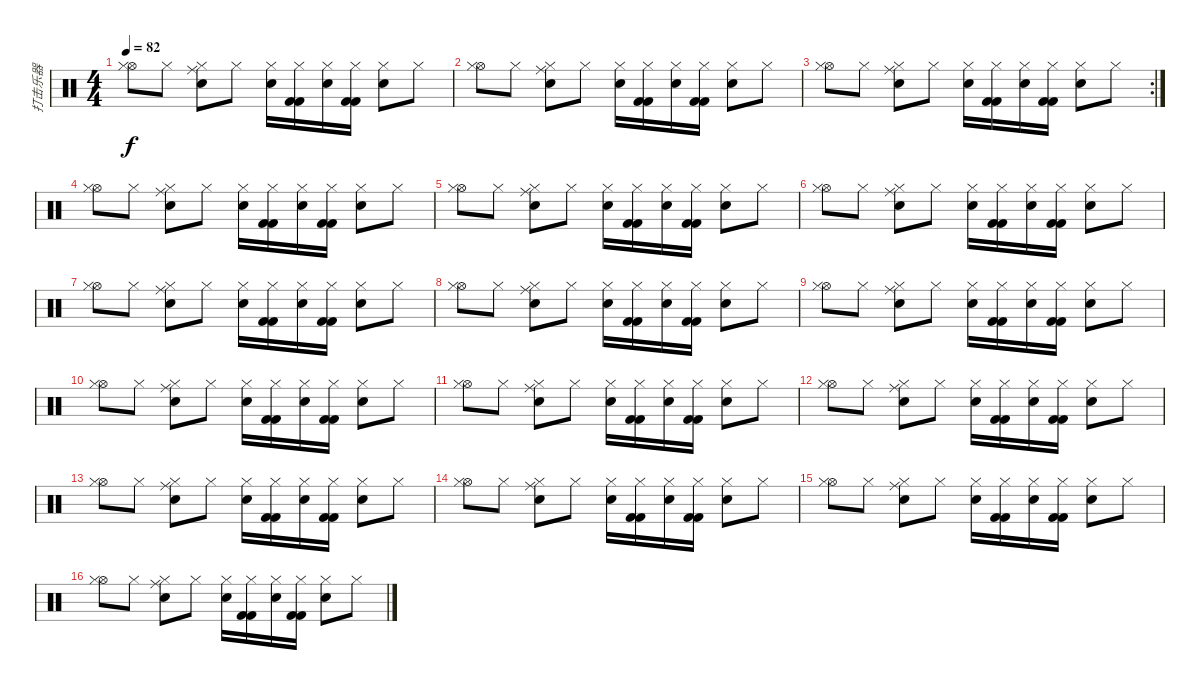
\track ("打击乐器" "打击乐器") {instrument percussion}
\staff {score}
\articulation defaults
\ts (4 4)
\tempo 82
\clef neutral
\ks c
("Hi-Hat (open)" "Hi-Hat (closed)").8{dy f} "Hi-Hat (closed)".8 ("Ride (middle)" "Snare (hit) 2" "Hi-Hat (closed)").8 "Hi-Hat (closed)".8 ("Snare (hit) 2" "Hi-Hat (closed)").16 ("Kick (hit) 2" "Kick (hit) 2" "Hi-Hat (closed)").16 ("Snare (hit) 2" "Hi-Hat (closed)").16 ("Kick (hit) 2" "Kick (hit) 2" "Hi-Hat (closed)").16 ("Snare (hit) 2" "Hi-Hat (closed)").8 "Hi-Hat (closed)".8 |
("Hi-Hat (open)" "Hi-Hat (closed)").8 "Hi-Hat (closed)".8 ("Ride (middle)" "Snare (hit) 2" "Hi-Hat (closed)").8 "Hi-Hat (closed)".8 ("Snare (hit) 2" "Hi-Hat (closed)").16 ("Kick (hit) 2" "Kick (hit) 2" "Hi-Hat (closed)").16 ("Snare (hit) 2" "Hi-Hat (closed)").16 ("Kick (hit) 2" "Kick (hit) 2" "Hi-Hat (closed)").16 ("Snare (hit) 2" "Hi-Hat (closed)").8 "Hi-Hat (closed)".8 |
\rc 2
("Hi-Hat (open)" "Hi-Hat (closed)").8 "Hi-Hat (closed)".8 ("Ride (middle)" "Snare (hit) 2" "Hi-Hat (closed)").8 "Hi-Hat (closed)".8 ("Snare (hit) 2" "Hi-Hat (closed)").16 ("Kick (hit) 2" "Kick (hit) 2" "Hi-Hat (closed)").16 ("Snare (hit) 2" "Hi-Hat (closed)").16 ("Kick (hit) 2" "Kick (hit) 2" "Hi-Hat (closed)").16 ("Snare (hit) 2" "Hi-Hat (closed)").8 "Hi-Hat (closed)".8 |
("Hi-Hat (open)" "Hi-Hat (closed)").8 "Hi-Hat (closed)".8 ("Ride (middle)" "Snare (hit) 2" "Hi-Hat (closed)").8 "Hi-Hat (closed)".8 ("Snare (hit) 2" "Hi-Hat (closed)").16 ("Kick (hit) 2" "Kick (hit) 2" "Hi-Hat (closed)").16 ("Snare (hit) 2" "Hi-Hat (closed)").16 ("Kick (hit) 2" "Kick (hit) 2" "Hi-Hat (closed)").16 ("Snare (hit) 2" "Hi-Hat (closed)").8 "Hi-Hat (closed)".8 |
("Hi-Hat (open)" "Hi-Hat (closed)").8 "Hi-Hat (closed)".8 ("Ride (middle)" "Snare (hit) 2" "Hi-Hat (closed)").8 "Hi-Hat (closed)".8 ("Snare (hit) 2" "Hi-Hat (closed)").16 ("Kick (hit) 2" "Kick (hit) 2" "Hi-Hat (closed)").16 ("Snare (hit) 2" "Hi-Hat (closed)").16 ("Kick (hit) 2" "Kick (hit) 2" "Hi-Hat (closed)").16 ("Snare (hit) 2" "Hi-Hat (closed)").8 "Hi-Hat (closed)".8 |
("Hi-Hat (open)" "Hi-Hat (closed)").8 "Hi-Hat (closed)".8 ("Ride (middle)" "Snare (hit) 2" "Hi-Hat (closed)").8 "Hi-Hat (closed)".8 ("Snare (hit) 2" "Hi-Hat (closed)").16 ("Kick (hit) 2" "Kick (hit) 2" "Hi-Hat (closed)").16 ("Snare (hit) 2" "Hi-Hat (closed)").16 ("Kick (hit) 2" "Kick (hit) 2" "Hi-Hat (closed)").16 ("Snare (hit) 2" "Hi-Hat (closed)").8 "Hi-Hat (closed)".8 |
("Hi-Hat (open)" "Hi-Hat (closed)").8 "Hi-Hat (closed)".8 ("Ride (middle)" "Snare (hit) 2" "Hi-Hat (closed)").8 "Hi-Hat (closed)".8 ("Snare (hit) 2" "Hi-Hat (closed)").16 ("Kick (hit) 2" "Kick (hit) 2" "Hi-Hat (closed)").16 ("Snare (hit) 2" "Hi-Hat (closed)").16 ("Kick (hit) 2" "Kick (hit) 2" "Hi-Hat (closed)").16 ("Snare (hit) 2" "Hi-Hat (closed)").8 "Hi-Hat (closed)".8 |
("Hi-Hat (open)" "Hi-Hat (closed)").8 "Hi-Hat (closed)".8 ("Ride (middle)" "Snare (hit) 2" "Hi-Hat (closed)").8 "Hi-Hat (closed)".8 ("Snare (hit) 2" "Hi-Hat (closed)").16 ("Kick (hit) 2" "Kick (hit) 2" "Hi-Hat (closed)").16 ("Snare (hit) 2" "Hi-Hat (closed)").16 ("Kick (hit) 2" "Kick (hit) 2" "Hi-Hat (closed)").16 ("Snare (hit) 2" "Hi-Hat (closed)").8 "Hi-Hat (closed)".8 |
("Hi-Hat (open)" "Hi-Hat (closed)").8 "Hi-Hat (closed)".8 ("Ride (middle)" "Snare (hit) 2" "Hi-Hat (closed)").8 "Hi-Hat (closed)".8 ("Snare (hit) 2" "Hi-Hat (closed)").16 ("Kick (hit) 2" "Kick (hit) 2" "Hi-Hat (closed)").16 ("Snare (hit) 2" "Hi-Hat (closed)").16 ("Kick (hit) 2" "Kick (hit) 2" "Hi-Hat (closed)").16 ("Snare (hit) 2" "Hi-Hat (closed)").8 "Hi-Hat (closed)".8 |
("Hi-Hat (open)" "Hi-Hat (closed)").8 "Hi-Hat (closed)".8 ("Ride (middle)" "Snare (hit) 2" "Hi-Hat (closed)").8 "Hi-Hat (closed)".8 ("Snare (hit) 2" "Hi-Hat (closed)").16 ("Kick (hit) 2" "Kick (hit) 2" "Hi-Hat (closed)").16 ("Snare (hit) 2" "Hi-Hat (closed)").16 ("Kick (hit) 2" "Kick (hit) 2" "Hi-Hat (closed)").16 ("Snare (hit) 2" "Hi-Hat (closed)").8 "Hi-Hat (closed)".8 |
("Hi-Hat (open)" "Hi-Hat (closed)").8 "Hi-Hat (closed)".8 ("Ride (middle)" "Snare (hit) 2" "Hi-Hat (closed)").8 "Hi-Hat (closed)".8 ("Snare (hit) 2" "Hi-Hat (closed)").16 ("Kick (hit) 2" "Kick (hit) 2" "Hi-Hat (closed)").16 ("Snare (hit) 2" "Hi-Hat (closed)").16 ("Kick (hit) 2" "Kick (hit) 2" "Hi-Hat (closed)").16 ("Snare (hit) 2" "Hi-Hat (closed)").8 "Hi-Hat (closed)".8 |
("Hi-Hat (open)" "Hi-Hat (closed)").8 "Hi-Hat (closed)".8 ("Ride (middle)" "Snare (hit) 2" "Hi-Hat (closed)").8 "Hi-Hat (closed)".8 ("Snare (hit) 2" "Hi-Hat (closed)").16 ("Kick (hit) 2" "Kick (hit) 2" "Hi-Hat (closed)").16 ("Snare (hit) 2" "Hi-Hat (closed)").16 ("Kick (hit) 2" "Kick (hit) 2" "Hi-Hat (closed)").16 ("Snare (hit) 2" "Hi-Hat (closed)").8 "Hi-Hat (closed)".8 |
("Hi-Hat (open)" "Hi-Hat (closed)").8 "Hi-Hat (closed)".8 ("Ride (middle)" "Snare (hit) 2" "Hi-Hat (closed)").8 "Hi-Hat (closed)".8 ("Snare (hit) 2" "Hi-Hat (closed)").16 ("Kick (hit) 2" "Kick (hit) 2" "Hi-Hat (closed)").16 ("Snare (hit) 2" "Hi-Hat (closed)").16 ("Kick (hit) 2" "Kick (hit) 2" "Hi-Hat (closed)").16 ("Snare (hit) 2" "Hi-Hat (closed)").8 "Hi-Hat (closed)".8 |
("Hi-Hat (open)" "Hi-Hat (closed)").8 "Hi-Hat (closed)".8 ("Ride (middle)" "Snare (hit) 2" "Hi-Hat (closed)").8 "Hi-Hat (closed)".8 ("Snare (hit) 2" "Hi-Hat (closed)").16 ("Kick (hit) 2" "Kick (hit) 2" "Hi-Hat (closed)").16 ("Snare (hit) 2" "Hi-Hat (closed)").16 ("Kick (hit) 2" "Kick (hit) 2" "Hi-Hat (closed)").16 ("Snare (hit) 2" "Hi-Hat (closed)").8 "Hi-Hat (closed)".8 |
("Hi-Hat (open)" "Hi-Hat (closed)").8 "Hi-Hat (closed)".8 ("Ride (middle)" "Snare (hit) 2" "Hi-Hat (closed)").8 "Hi-Hat (closed)".8 ("Snare (hit) 2" "Hi-Hat (closed)").16 ("Kick (hit) 2" "Kick (hit) 2" "Hi-Hat (closed)").16 ("Snare (hit) 2" "Hi-Hat (closed)").16 ("Kick (hit) 2" "Kick (hit) 2" "Hi-Hat (closed)").16 ("Snare (hit) 2" "Hi-Hat (closed)").8 "Hi-Hat (closed)".8 |
("Hi-Hat (open)" "Hi-Hat (closed)").8 "Hi-Hat (closed)".8 ("Ride (middle)" "Snare (hit) 2" "Hi-Hat (closed)").8 "Hi-Hat (closed)".8 ("Snare (hit) 2" "Hi-Hat (closed)").16 ("Kick (hit) 2" "Kick (hit) 2" "Hi-Hat (closed)").16 ("Snare (hit) 2" "Hi-Hat (closed)").16 ("Kick (hit) 2" "Kick (hit) 2" "Hi-Hat (closed)").16 ("Snare (hit) 2" "Hi-Hat (closed)").8 "Hi-Hat (closed)".8
